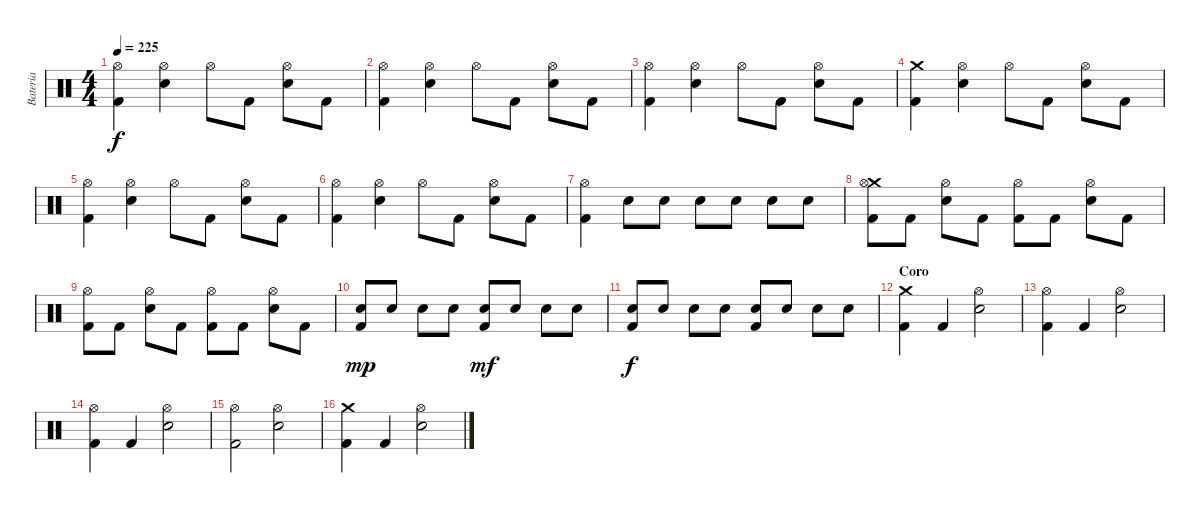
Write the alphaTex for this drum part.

\track ("Bateria" "Bateria") {instrument percussion}
\staff {score}
\articulation defaults
\ts (4 4)
\tempo 225
\clef neutral
\ks c
("Hi-Hat (open)" "Kick (hit) 2").4{dy f} ("Snare (hit) 2" "Hi-Hat (open)").4 "Hi-Hat (open)".8 "Kick (hit) 2".8 ("Hi-Hat (open)" "Snare (hit) 2").8 "Kick (hit) 2".8 |
("Hi-Hat (open)" "Kick (hit) 2").4 ("Snare (hit) 2" "Hi-Hat (open)").4 "Hi-Hat (open)".8 "Kick (hit) 2".8 ("Hi-Hat (open)" "Snare (hit) 2").8 "Kick (hit) 2".8 |
("Hi-Hat (open)" "Kick (hit) 2").4 ("Snare (hit) 2" "Hi-Hat (open)").4 "Hi-Hat (open)".8 "Kick (hit) 2".8 ("Hi-Hat (open)" "Snare (hit) 2").8 "Kick (hit) 2".8 |
("Crash medium (hit)" "Kick (hit) 2").4 ("Snare (hit) 2" "Hi-Hat (open)").4 "Hi-Hat (open)".8 "Kick (hit) 2".8 ("Hi-Hat (open)" "Snare (hit) 2").8 "Kick (hit) 2".8 |
("Hi-Hat (open)" "Kick (hit) 2").4 ("Snare (hit) 2" "Hi-Hat (open)").4 "Hi-Hat (open)".8 "Kick (hit) 2".8 ("Hi-Hat (open)" "Snare (hit) 2").8 "Kick (hit) 2".8 |
("Hi-Hat (open)" "Kick (hit) 2").4 ("Snare (hit) 2" "Hi-Hat (open)").4 "Hi-Hat (open)".8 "Kick (hit) 2".8 ("Hi-Hat (open)" "Snare (hit) 2").8 "Kick (hit) 2".8 |
("Hi-Hat (open)" "Kick (hit) 2").4 "Snare (hit) 2".8 "Snare (hit) 2".8 "Snare (hit) 2".8 "Snare (hit) 2".8 "Snare (hit) 2".8 "Snare (hit) 2".8 |
("Crash medium (hit)" "Hi-Hat (open)" "Kick (hit) 2").8 "Kick (hit) 2".8 ("Hi-Hat (open)" "Snare (hit) 2").8 "Kick (hit) 2".8 ("Hi-Hat (open)" "Kick (hit) 2").8 "Kick (hit) 2".8 ("Hi-Hat (open)" "Snare (hit) 2").8 "Kick (hit) 2".8 |
("Hi-Hat (open)" "Kick (hit) 2").8 "Kick (hit) 2".8 ("Hi-Hat (open)" "Snare (hit) 2").8 "Kick (hit) 2".8 ("Hi-Hat (open)" "Kick (hit) 2").8 "Kick (hit) 2".8 ("Hi-Hat (open)" "Snare (hit) 2").8 "Kick (hit) 2".8 |
("Snare (hit) 2" "Kick (hit) 2").8{dy mp} "Snare (hit) 2".8 "Snare (hit) 2".8 "Snare (hit) 2".8 ("Snare (hit) 2" "Kick (hit) 2").8{dy mf} "Snare (hit) 2".8 "Snare (hit) 2".8 "Snare (hit) 2".8 |
("Snare (hit) 2" "Kick (hit) 2").8{dy f} "Snare (hit) 2".8 "Snare (hit) 2".8 "Snare (hit) 2".8 ("Kick (hit) 2" "Snare (hit) 2").8 "Snare (hit) 2".8 "Snare (hit) 2".8 "Snare (hit) 2".8 |
\section ("" "Coro")
("Kick (hit) 2" "Crash medium (hit)").4 "Kick (hit) 2".4 ("Snare (hit) 2" "Hi-Hat (open)").2 |
("Kick (hit) 2" "Hi-Hat (open)").4 "Kick (hit) 2".4 ("Snare (hit) 2" "Hi-Hat (open)").2 |
("Kick (hit) 2" "Hi-Hat (open)").4 "Kick (hit) 2".4 ("Snare (hit) 2" "Hi-Hat (open)").2 |
("Kick (hit) 2" "Hi-Hat (open)").2 ("Snare (hit) 2" "Hi-Hat (open)").2 |
("Kick (hit) 2" "Crash medium (hit)").4 "Kick (hit) 2".4 ("Snare (hit) 2" "Hi-Hat (open)").2
